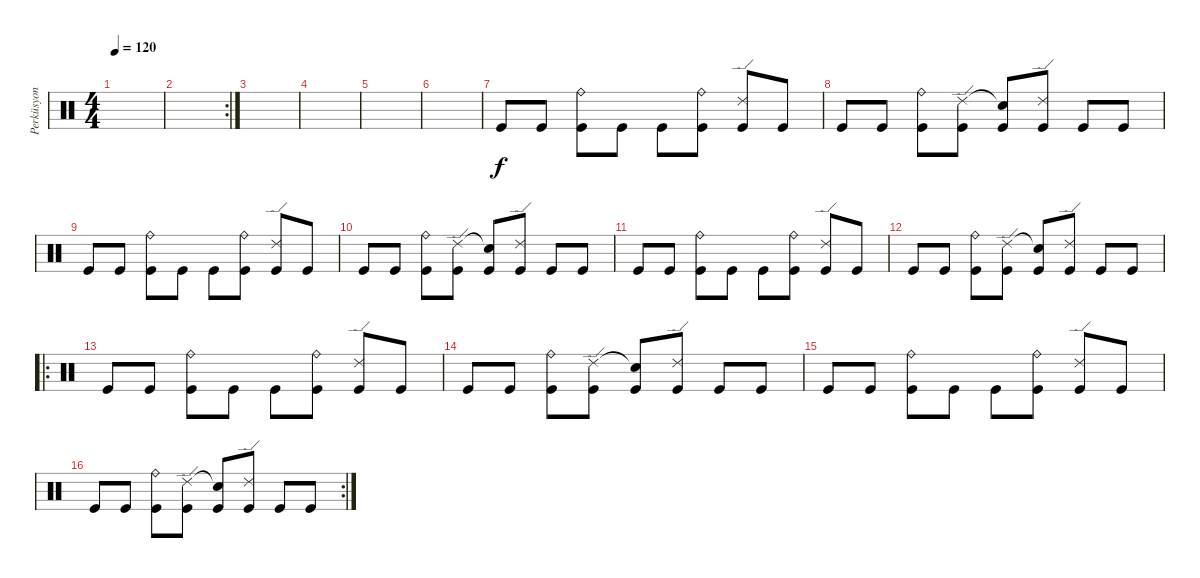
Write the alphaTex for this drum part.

\track ("Perküsyon" "Perküsyon") {instrument percussion}
\staff {score}
\articulation defaults
\ts (4 4)
\tempo 120
\clef neutral
\ks c
|
\rc 2
|
|
|
|
|
"Kick (hit)".8 "Kick (hit)".8 ("Ride (bell)" "Kick (hit)").8 "Kick (hit)".8 "Kick (hit)".8 ("Ride (bell)" "Kick (hit)").8 ("Ride (edge) 2" "Kick (hit)").8 "Kick (hit)".8 |
"Kick (hit)".8 "Kick (hit)".8 ("Ride (bell)" "Kick (hit)").8 ("Ride (edge) 2" "Kick (hit)").8 ("Snare (hit)"{t} "Kick (hit)").8 ("Ride (edge) 2" "Kick (hit)").8 "Kick (hit)".8 "Kick (hit)".8 |
"Kick (hit)".8 "Kick (hit)".8 ("Ride (bell)" "Kick (hit)").8 "Kick (hit)".8 "Kick (hit)".8 ("Ride (bell)" "Kick (hit)").8 ("Ride (edge) 2" "Kick (hit)").8 "Kick (hit)".8 |
"Kick (hit)".8 "Kick (hit)".8 ("Ride (bell)" "Kick (hit)").8 ("Ride (edge) 2" "Kick (hit)").8 ("Snare (hit)"{t} "Kick (hit)").8 ("Ride (edge) 2" "Kick (hit)").8 "Kick (hit)".8 "Kick (hit)".8 |
"Kick (hit)".8 "Kick (hit)".8 ("Ride (bell)" "Kick (hit)").8 "Kick (hit)".8 "Kick (hit)".8 ("Ride (bell)" "Kick (hit)").8 ("Ride (edge) 2" "Kick (hit)").8 "Kick (hit)".8 |
"Kick (hit)".8 "Kick (hit)".8 ("Ride (bell)" "Kick (hit)").8 ("Ride (edge) 2" "Kick (hit)").8 ("Snare (hit)"{t} "Kick (hit)").8 ("Ride (edge) 2" "Kick (hit)").8 "Kick (hit)".8 "Kick (hit)".8 |
\ro "Kick (hit)".8 "Kick (hit)".8
("Ride (bell)" "Kick (hit)").8 "Kick (hit)".8 "Kick (hit)".8 ("Ride (bell)" "Kick (hit)").8 ("Ride (edge) 2" "Kick (hit)").8 "Kick (hit)".8 |
"Kick (hit)".8 "Kick (hit)".8 ("Ride (bell)" "Kick (hit)").8 ("Ride (edge) 2" "Kick (hit)").8 ("Snare (hit)"{t} "Kick (hit)").8 ("Ride (edge) 2" "Kick (hit)").8 "Kick (hit)".8 "Kick (hit)".8 |
"Kick (hit)".8 "Kick (hit)".8 ("Ride (bell)" "Kick (hit)").8 "Kick (hit)".8 "Kick (hit)".8 ("Ride (bell)" "Kick (hit)").8 ("Ride (edge) 2" "Kick (hit)").8 "Kick (hit)".8 |
\rc 2 "Kick (hit)".8 "Kick (hit)".8
("Ride (bell)" "Kick (hit)").8 ("Ride (edge) 2" "Kick (hit)").8 ("Snare (hit)"{t} "Kick (hit)").8 ("Ride (edge) 2" "Kick (hit)").8 "Kick (hit)".8 "Kick (hit)".8
